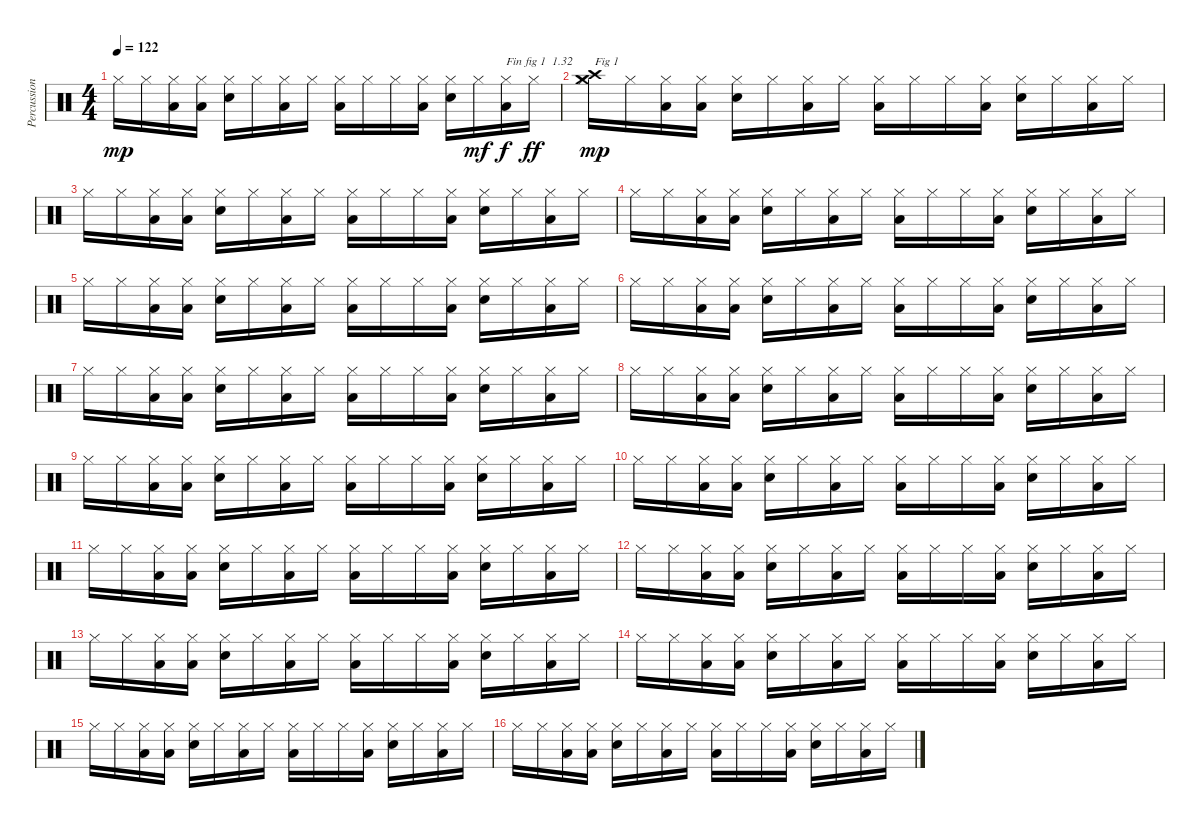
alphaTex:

\track ("Percussions" "Percussion") {instrument percussion}
\staff {score}
\articulation defaults
\ts (4 4)
\tempo 122
\clef neutral
\ks c "Hi-Hat (closed)".16{dy mp} "Hi-Hat (closed)".16
("Low Floor Tom (hit)" "Hi-Hat (closed)").16 ("Low Floor Tom (hit)" "Hi-Hat (closed)").16 ("Snare (hit) 2" "Hi-Hat (closed)").16 "Hi-Hat (closed)".16 ("Low Floor Tom (hit)" "Hi-Hat (closed)").16 "Hi-Hat (closed)".16 ("Low Floor Tom (hit)" "Hi-Hat (closed)").16 "Hi-Hat (closed)".16 "Hi-Hat (closed)".16 ("Low Floor Tom (hit)" "Hi-Hat (closed)").16 ("Snare (hit) 2" "Hi-Hat (closed)").16 "Hi-Hat (closed)".16{dy mf} ("Low Floor Tom (hit)" "Hi-Hat (closed)").16{txt "Fin fig 1  1.32" dy f} "Hi-Hat (closed)".16{dy ff} |
("Crash high (hit)" "Crash medium (hit)" "Hi-Hat (closed)").16{txt "Fig 1" dy mp} "Hi-Hat (closed)".16 ("Low Floor Tom (hit)" "Hi-Hat (closed)").16 ("Low Floor Tom (hit)" "Hi-Hat (closed)").16 ("Snare (hit) 2" "Hi-Hat (closed)").16 "Hi-Hat (closed)".16 ("Low Floor Tom (hit)" "Hi-Hat (closed)").16 "Hi-Hat (closed)".16 ("Low Floor Tom (hit)" "Hi-Hat (closed)").16 "Hi-Hat (closed)".16 "Hi-Hat (closed)".16 ("Low Floor Tom (hit)" "Hi-Hat (closed)").16 ("Snare (hit) 2" "Hi-Hat (closed)").16 "Hi-Hat (closed)".16 ("Low Floor Tom (hit)" "Hi-Hat (closed)").16 "Hi-Hat (closed)".16 |
"Hi-Hat (closed)".16 "Hi-Hat (closed)".16 ("Low Floor Tom (hit)" "Hi-Hat (closed)").16 ("Low Floor Tom (hit)" "Hi-Hat (closed)").16 ("Snare (hit) 2" "Hi-Hat (closed)").16 "Hi-Hat (closed)".16 ("Low Floor Tom (hit)" "Hi-Hat (closed)").16 "Hi-Hat (closed)".16 ("Low Floor Tom (hit)" "Hi-Hat (closed)").16 "Hi-Hat (closed)".16 "Hi-Hat (closed)".16 ("Low Floor Tom (hit)" "Hi-Hat (closed)").16 ("Snare (hit) 2" "Hi-Hat (closed)").16 "Hi-Hat (closed)".16 ("Low Floor Tom (hit)" "Hi-Hat (closed)").16 "Hi-Hat (closed)".16 |
"Hi-Hat (closed)".16 "Hi-Hat (closed)".16 ("Low Floor Tom (hit)" "Hi-Hat (closed)").16 ("Low Floor Tom (hit)" "Hi-Hat (closed)").16 ("Snare (hit) 2" "Hi-Hat (closed)").16 "Hi-Hat (closed)".16 ("Low Floor Tom (hit)" "Hi-Hat (closed)").16 "Hi-Hat (closed)".16 ("Low Floor Tom (hit)" "Hi-Hat (closed)").16 "Hi-Hat (closed)".16 "Hi-Hat (closed)".16 ("Low Floor Tom (hit)" "Hi-Hat (closed)").16 ("Snare (hit) 2" "Hi-Hat (closed)").16 "Hi-Hat (closed)".16 ("Low Floor Tom (hit)" "Hi-Hat (closed)").16 "Hi-Hat (closed)".16 |
"Hi-Hat (closed)".16 "Hi-Hat (closed)".16 ("Low Floor Tom (hit)" "Hi-Hat (closed)").16 ("Low Floor Tom (hit)" "Hi-Hat (closed)").16 ("Snare (hit) 2" "Hi-Hat (closed)").16 "Hi-Hat (closed)".16 ("Low Floor Tom (hit)" "Hi-Hat (closed)").16 "Hi-Hat (closed)".16 ("Low Floor Tom (hit)" "Hi-Hat (closed)").16 "Hi-Hat (closed)".16 "Hi-Hat (closed)".16 ("Low Floor Tom (hit)" "Hi-Hat (closed)").16 ("Snare (hit) 2" "Hi-Hat (closed)").16 "Hi-Hat (closed)".16 ("Low Floor Tom (hit)" "Hi-Hat (closed)").16 "Hi-Hat (closed)".16 |
"Hi-Hat (closed)".16 "Hi-Hat (closed)".16 ("Low Floor Tom (hit)" "Hi-Hat (closed)").16 ("Low Floor Tom (hit)" "Hi-Hat (closed)").16 ("Snare (hit) 2" "Hi-Hat (closed)").16 "Hi-Hat (closed)".16 ("Low Floor Tom (hit)" "Hi-Hat (closed)").16 "Hi-Hat (closed)".16 ("Low Floor Tom (hit)" "Hi-Hat (closed)").16 "Hi-Hat (closed)".16 "Hi-Hat (closed)".16 ("Low Floor Tom (hit)" "Hi-Hat (closed)").16 ("Snare (hit) 2" "Hi-Hat (closed)").16 "Hi-Hat (closed)".16 ("Low Floor Tom (hit)" "Hi-Hat (closed)").16 "Hi-Hat (closed)".16 |
"Hi-Hat (closed)".16 "Hi-Hat (closed)".16 ("Low Floor Tom (hit)" "Hi-Hat (closed)").16 ("Low Floor Tom (hit)" "Hi-Hat (closed)").16 ("Snare (hit) 2" "Hi-Hat (closed)").16 "Hi-Hat (closed)".16 ("Low Floor Tom (hit)" "Hi-Hat (closed)").16 "Hi-Hat (closed)".16 ("Low Floor Tom (hit)" "Hi-Hat (closed)").16 "Hi-Hat (closed)".16 "Hi-Hat (closed)".16 ("Low Floor Tom (hit)" "Hi-Hat (closed)").16 ("Snare (hit) 2" "Hi-Hat (closed)").16 "Hi-Hat (closed)".16 ("Low Floor Tom (hit)" "Hi-Hat (closed)").16 "Hi-Hat (closed)".16 |
"Hi-Hat (closed)".16 "Hi-Hat (closed)".16 ("Low Floor Tom (hit)" "Hi-Hat (closed)").16 ("Low Floor Tom (hit)" "Hi-Hat (closed)").16 ("Snare (hit) 2" "Hi-Hat (closed)").16 "Hi-Hat (closed)".16 ("Low Floor Tom (hit)" "Hi-Hat (closed)").16 "Hi-Hat (closed)".16 ("Low Floor Tom (hit)" "Hi-Hat (closed)").16 "Hi-Hat (closed)".16 "Hi-Hat (closed)".16 ("Low Floor Tom (hit)" "Hi-Hat (closed)").16 ("Snare (hit) 2" "Hi-Hat (closed)").16 "Hi-Hat (closed)".16 ("Low Floor Tom (hit)" "Hi-Hat (closed)").16 "Hi-Hat (closed)".16 |
"Hi-Hat (closed)".16 "Hi-Hat (closed)".16 ("Low Floor Tom (hit)" "Hi-Hat (closed)").16 ("Low Floor Tom (hit)" "Hi-Hat (closed)").16 ("Snare (hit) 2" "Hi-Hat (closed)").16 "Hi-Hat (closed)".16 ("Low Floor Tom (hit)" "Hi-Hat (closed)").16 "Hi-Hat (closed)".16 ("Low Floor Tom (hit)" "Hi-Hat (closed)").16 "Hi-Hat (closed)".16 "Hi-Hat (closed)".16 ("Low Floor Tom (hit)" "Hi-Hat (closed)").16 ("Snare (hit) 2" "Hi-Hat (closed)").16 "Hi-Hat (closed)".16 ("Low Floor Tom (hit)" "Hi-Hat (closed)").16 "Hi-Hat (closed)".16 |
"Hi-Hat (closed)".16 "Hi-Hat (closed)".16 ("Low Floor Tom (hit)" "Hi-Hat (closed)").16 ("Low Floor Tom (hit)" "Hi-Hat (closed)").16 ("Snare (hit) 2" "Hi-Hat (closed)").16 "Hi-Hat (closed)".16 ("Low Floor Tom (hit)" "Hi-Hat (closed)").16 "Hi-Hat (closed)".16 ("Low Floor Tom (hit)" "Hi-Hat (closed)").16 "Hi-Hat (closed)".16 "Hi-Hat (closed)".16 ("Low Floor Tom (hit)" "Hi-Hat (closed)").16 ("Snare (hit) 2" "Hi-Hat (closed)").16 "Hi-Hat (closed)".16 ("Low Floor Tom (hit)" "Hi-Hat (closed)").16 "Hi-Hat (closed)".16 |
"Hi-Hat (closed)".16 "Hi-Hat (closed)".16 ("Low Floor Tom (hit)" "Hi-Hat (closed)").16 ("Low Floor Tom (hit)" "Hi-Hat (closed)").16 ("Snare (hit) 2" "Hi-Hat (closed)").16 "Hi-Hat (closed)".16 ("Low Floor Tom (hit)" "Hi-Hat (closed)").16 "Hi-Hat (closed)".16 ("Low Floor Tom (hit)" "Hi-Hat (closed)").16 "Hi-Hat (closed)".16 "Hi-Hat (closed)".16 ("Low Floor Tom (hit)" "Hi-Hat (closed)").16 ("Snare (hit) 2" "Hi-Hat (closed)").16 "Hi-Hat (closed)".16 ("Low Floor Tom (hit)" "Hi-Hat (closed)").16 "Hi-Hat (closed)".16 |
"Hi-Hat (closed)".16 "Hi-Hat (closed)".16 ("Low Floor Tom (hit)" "Hi-Hat (closed)").16 ("Low Floor Tom (hit)" "Hi-Hat (closed)").16 ("Snare (hit) 2" "Hi-Hat (closed)").16 "Hi-Hat (closed)".16 ("Low Floor Tom (hit)" "Hi-Hat (closed)").16 "Hi-Hat (closed)".16 ("Low Floor Tom (hit)" "Hi-Hat (closed)").16 "Hi-Hat (closed)".16 "Hi-Hat (closed)".16 ("Low Floor Tom (hit)" "Hi-Hat (closed)").16 ("Snare (hit) 2" "Hi-Hat (closed)").16 "Hi-Hat (closed)".16 ("Low Floor Tom (hit)" "Hi-Hat (closed)").16 "Hi-Hat (closed)".16 |
"Hi-Hat (closed)".16 "Hi-Hat (closed)".16 ("Low Floor Tom (hit)" "Hi-Hat (closed)").16 ("Low Floor Tom (hit)" "Hi-Hat (closed)").16 ("Snare (hit) 2" "Hi-Hat (closed)").16 "Hi-Hat (closed)".16 ("Low Floor Tom (hit)" "Hi-Hat (closed)").16 "Hi-Hat (closed)".16 ("Low Floor Tom (hit)" "Hi-Hat (closed)").16 "Hi-Hat (closed)".16 "Hi-Hat (closed)".16 ("Low Floor Tom (hit)" "Hi-Hat (closed)").16 ("Snare (hit) 2" "Hi-Hat (closed)").16 "Hi-Hat (closed)".16 ("Low Floor Tom (hit)" "Hi-Hat (closed)").16 "Hi-Hat (closed)".16 |
"Hi-Hat (closed)".16 "Hi-Hat (closed)".16 ("Low Floor Tom (hit)" "Hi-Hat (closed)").16 ("Low Floor Tom (hit)" "Hi-Hat (closed)").16 ("Snare (hit) 2" "Hi-Hat (closed)").16 "Hi-Hat (closed)".16 ("Low Floor Tom (hit)" "Hi-Hat (closed)").16 "Hi-Hat (closed)".16 ("Low Floor Tom (hit)" "Hi-Hat (closed)").16 "Hi-Hat (closed)".16 "Hi-Hat (closed)".16 ("Low Floor Tom (hit)" "Hi-Hat (closed)").16 ("Snare (hit) 2" "Hi-Hat (closed)").16 "Hi-Hat (closed)".16 ("Low Floor Tom (hit)" "Hi-Hat (closed)").16 "Hi-Hat (closed)".16 |
"Hi-Hat (closed)".16 "Hi-Hat (closed)".16 ("Low Floor Tom (hit)" "Hi-Hat (closed)").16 ("Low Floor Tom (hit)" "Hi-Hat (closed)").16 ("Snare (hit) 2" "Hi-Hat (closed)").16 "Hi-Hat (closed)".16 ("Low Floor Tom (hit)" "Hi-Hat (closed)").16 "Hi-Hat (closed)".16 ("Low Floor Tom (hit)" "Hi-Hat (closed)").16 "Hi-Hat (closed)".16 "Hi-Hat (closed)".16 ("Low Floor Tom (hit)" "Hi-Hat (closed)").16 ("Snare (hit) 2" "Hi-Hat (closed)").16 "Hi-Hat (closed)".16 ("Low Floor Tom (hit)" "Hi-Hat (closed)").16 "Hi-Hat (closed)".16 |
"Hi-Hat (closed)".16 "Hi-Hat (closed)".16 ("Low Floor Tom (hit)" "Hi-Hat (closed)").16 ("Low Floor Tom (hit)" "Hi-Hat (closed)").16 ("Snare (hit) 2" "Hi-Hat (closed)").16 "Hi-Hat (closed)".16 ("Low Floor Tom (hit)" "Hi-Hat (closed)").16 "Hi-Hat (closed)".16 ("Low Floor Tom (hit)" "Hi-Hat (closed)").16 "Hi-Hat (closed)".16 "Hi-Hat (closed)".16 ("Low Floor Tom (hit)" "Hi-Hat (closed)").16 ("Snare (hit) 2" "Hi-Hat (closed)").16 "Hi-Hat (closed)".16 ("Low Floor Tom (hit)" "Hi-Hat (closed)").16 "Hi-Hat (closed)".16
